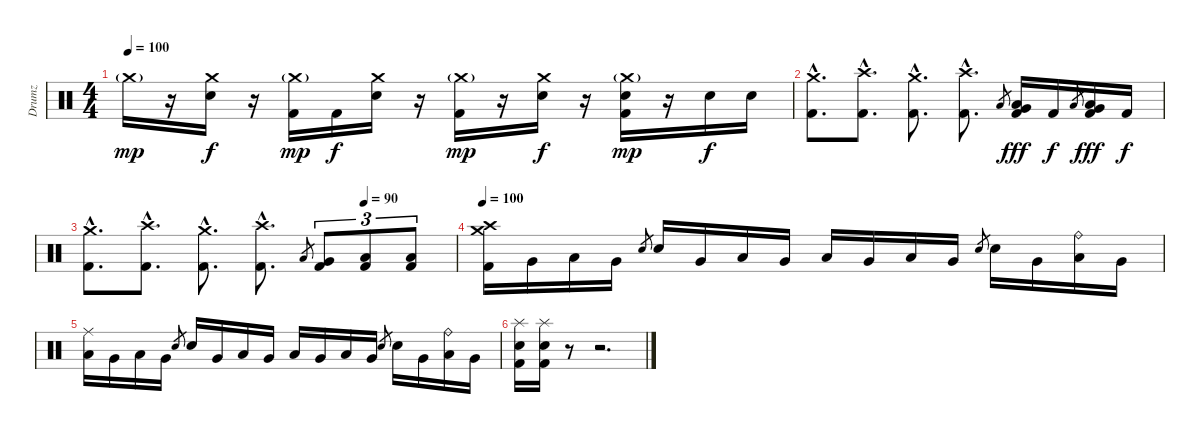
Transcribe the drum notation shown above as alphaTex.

\track ("Drumz" "Drumz") {instrument percussion}
\staff {score}
\articulation defaults
\ts (4 4)
\tempo 100
\clef neutral
\ks c "Crash medium (hit)"{g}.16{dy mp}
r.16 ("Crash medium (hit)" "Electric Snare (hit)").16{dy f} r.16 ("Crash medium (hit)"{g} "Kick (hit) 2").16{dy mp} "Kick (hit) 2".16{dy f} ("Crash medium (hit)" "Electric Snare (hit)").16 r.16 ("Crash medium (hit)"{g} "Kick (hit) 2").16{dy mp} r.16 ("Crash medium (hit)" "Electric Snare (hit)").16{dy f} r.16 ("Crash medium (hit)"{g} "Electric Snare (hit)" "Kick (hit) 2").16{dy mp} r.16 "Electric Snare (hit)".16{dy f} "Electric Snare (hit)".16 |
("Crash medium (hit)"{hac} "Kick (hit) 2"{hac}).8{d} ("Crash high (hit)"{hac} "Kick (hit) 2"{hac}).8{d} ("Crash medium (hit)"{hac} "Kick (hit) 2"{hac}).8{d} ("Crash high (hit)"{hac} "Kick (hit) 2"{hac}).8{d} "Low Floor Tom (hit)".8{gr} ("Very Low Tom (hit)" "Low Floor Tom (hit)" "Kick (hit) 2").16{dy fff} "Kick (hit) 2".16{dy f} "Low Floor Tom (hit)".8{gr} ("Very Low Tom (hit)" "Low Floor Tom (hit)" "Kick (hit) 2").16{dy fff} "Kick (hit) 2".16{dy f} |
\tempo (90 0.75)
("Crash medium (hit)"{hac} "Kick (hit) 2"{hac}).8{d} ("Crash high (hit)"{hac} "Kick (hit) 2"{hac}).8{d} ("Crash medium (hit)"{hac} "Kick (hit) 2"{hac}).8{d} ("Crash high (hit)"{hac} "Kick (hit) 2"{hac}).8{d} "Low Floor Tom (hit)".8{gr} ("Very Low Tom (hit)" "Kick (hit) 2").8{tu (3 2)} ("Low Floor Tom (hit)" "Kick (hit) 2").8{tu (3 2)} ("Low Floor Tom (hit)" "Kick (hit) 2").8{tu (3 2)} |
\tempo 100
("Crash medium (hit)" "Crash high (hit)" "Kick (hit) 2").16 "Very Low Tom (hit)".16 "Low Floor Tom (hit)".16 "Very Low Tom (hit)".16 "Electric Snare (hit)".8{gr} "Electric Snare (hit)".16 "Very Low Tom (hit)".16 "Low Floor Tom (hit)".16 "Very Low Tom (hit)".16 "Low Tom (hit)".16 "Very Low Tom (hit)".16 "Low Floor Tom (hit)".16 "Very Low Tom (hit)".16 "Electric Snare (hit)".8{gr} "Electric Snare (hit)".16 "Very Low Tom (hit)".16 ("Ride (bell)" "Low Floor Tom (hit)").16 "Very Low Tom (hit)".16 |
("Ride (middle)" "Low Tom (hit)").16 "Very Low Tom (hit)".16 "Low Floor Tom (hit)".16 "Very Low Tom (hit)".16 "Electric Snare (hit)".8{gr} "Electric Snare (hit)".16 "Very Low Tom (hit)".16 "Low Floor Tom (hit)".16 "Very Low Tom (hit)".16 "Low Tom (hit)".16 "Very Low Tom (hit)".16 "Low Floor Tom (hit)".16 "Very Low Tom (hit)".16 "Electric Snare (hit)".8{gr} "Electric Snare (hit)".16 "Very Low Tom (hit)".16 ("Ride (bell)" "Low Floor Tom (hit)").16 "Very Low Tom (hit)".16 |
("Splash (hit)" "Electric Snare (hit)" "Kick (hit) 2").16 ("Splash (hit)" "Electric Snare (hit)" "Kick (hit) 2").16 r.8 r.2{d}
